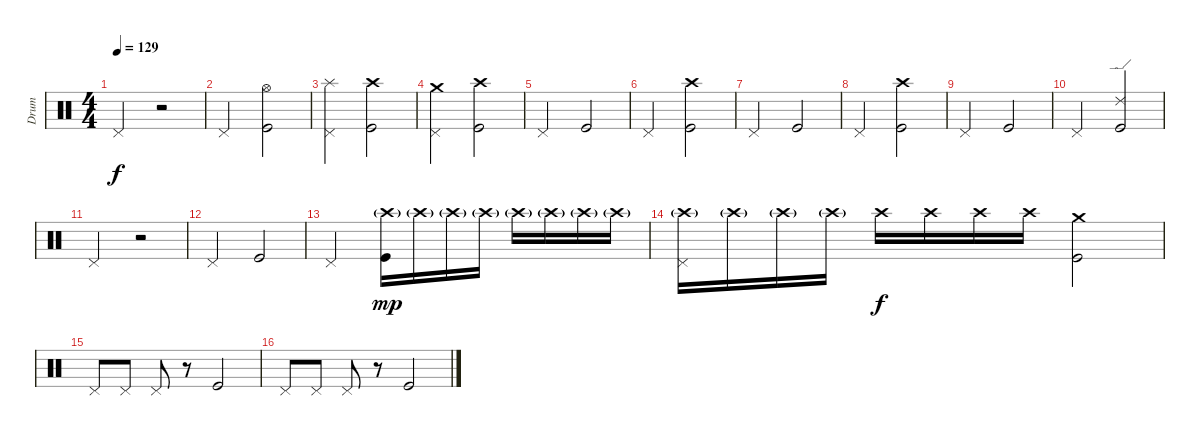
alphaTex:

\track ("Drum" "Drum") {instrument percussion}
\staff {score}
\articulation defaults
\ts (4 4)
\tempo 129
\clef neutral
\ks c "Pedal Hi-Hat (hit)".2{dy f}
r.2 |
"Pedal Hi-Hat (hit)".2 ("Hi-Hat (open)" "Kick (hit)").2 |
("Splash (hit)" "Pedal Hi-Hat (hit)").2 ("Crash high (hit)" "Kick (hit)").2 |
("Crash medium (hit)" "Pedal Hi-Hat (hit)").2 ("Crash high (hit)" "Kick (hit)").2 |
"Pedal Hi-Hat (hit)".2 "Kick (hit)".2 |
"Pedal Hi-Hat (hit)".2 ("Crash high (hit)" "Kick (hit)").2 |
"Pedal Hi-Hat (hit)".2 "Kick (hit)".2 |
"Pedal Hi-Hat (hit)".2 ("Crash high (hit)" "Kick (hit)").2 |
"Pedal Hi-Hat (hit)".2 "Kick (hit)".2 |
"Pedal Hi-Hat (hit)".2 ("Ride (edge) 2" "Kick (hit)").2 |
"Pedal Hi-Hat (hit)".2 r.2 |
"Pedal Hi-Hat (hit)".2 "Kick (hit)".2 |
"Pedal Hi-Hat (hit)".2 ("Crash high (hit)"{g} "Kick (hit)").16{dy mp} "Crash high (hit)"{g}.16 "Crash high (hit)"{g}.16 "Crash high (hit)"{g}.16 "Crash high (hit)"{g}.16 "Crash high (hit)"{g}.16 "Crash high (hit)"{g}.16 "Crash high (hit)"{g}.16 |
("Crash high (hit)"{g} "Pedal Hi-Hat (hit)").16 "Crash high (hit)"{g}.16 "Crash high (hit)"{g}.16 "Crash high (hit)"{g}.16 "Crash high (hit)".16{dy f} "Crash high (hit)".16 "Crash high (hit)".16 "Crash high (hit)".16 ("Crash medium (hit)" "Kick (hit)").2 |
"Pedal Hi-Hat (hit)".8{volume 1} "Pedal Hi-Hat (hit)".8 "Pedal Hi-Hat (hit)".8 r.8 "Kick (hit)".2{volume 4} |
"Pedal Hi-Hat (hit)".8{volume 1} "Pedal Hi-Hat (hit)".8 "Pedal Hi-Hat (hit)".8 r.8 "Kick (hit)".2{volume 4}
